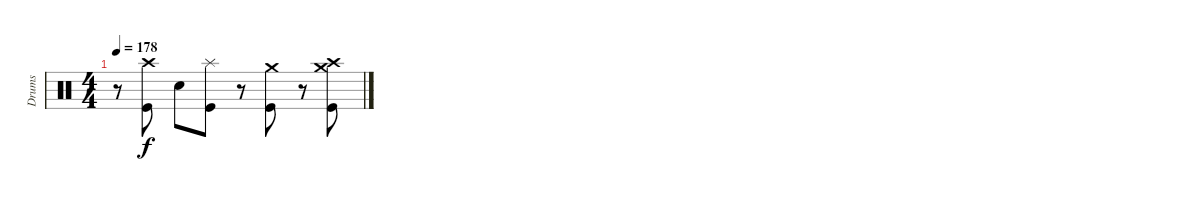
\track ("Drums" "Drums") {instrument percussion}
\staff {score}
\articulation defaults
\ts (4 4)
\tempo 178
\clef neutral
\ks c
r.8{dy f} ("Crash high (hit)" "Kick (hit)").8 "Electric Snare (hit)".8 ("Splash (hit)" "Kick (hit)").8 r.8 ("Crash medium (hit)" "Kick (hit)").8 r.8 ("Crash high (hit)" "Crash medium (hit)" "Kick (hit)").8
